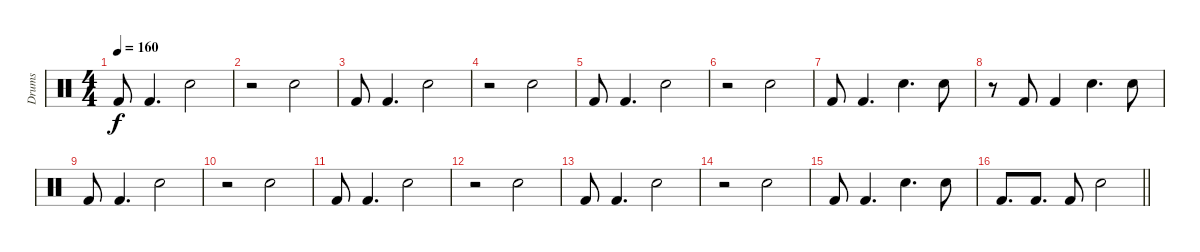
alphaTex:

\track ("Drums" "Drums") {instrument percussion}
\staff {score}
\articulation defaults
\ts (4 4)
\tempo 160
\clef neutral
\ks c "Kick (hit) 2".8{dy f} "Kick (hit) 2".4{d} "Snare (hit) 2".2
|
r.2 "Snare (hit) 2".2 |
"Kick (hit) 2".8 "Kick (hit) 2".4{d} "Snare (hit) 2".2 |
r.2 "Snare (hit) 2".2 |
"Kick (hit) 2".8 "Kick (hit) 2".4{d} "Snare (hit) 2".2 |
r.2 "Snare (hit) 2".2 |
"Kick (hit) 2".8 "Kick (hit) 2".4{d} "Snare (hit) 2".4{d} "Snare (hit) 2".8 |
r.8 "Kick (hit) 2".8 "Kick (hit) 2".4 "Snare (hit) 2".4{d} "Snare (hit) 2".8 |
"Kick (hit) 2".8 "Kick (hit) 2".4{d} "Snare (hit) 2".2 |
r.2 "Snare (hit) 2".2 |
"Kick (hit) 2".8 "Kick (hit) 2".4{d} "Snare (hit) 2".2 |
r.2 "Snare (hit) 2".2 |
"Kick (hit) 2".8 "Kick (hit) 2".4{d} "Snare (hit) 2".2 |
r.2 "Snare (hit) 2".2 |
"Kick (hit) 2".8 "Kick (hit) 2".4{d} "Snare (hit) 2".4{d} "Snare (hit) 2".8 |
\barLineRight lightlight "Kick (hit) 2".8{d} "Kick (hit) 2".8{d} "Kick (hit) 2".8 "Snare (hit) 2".2
